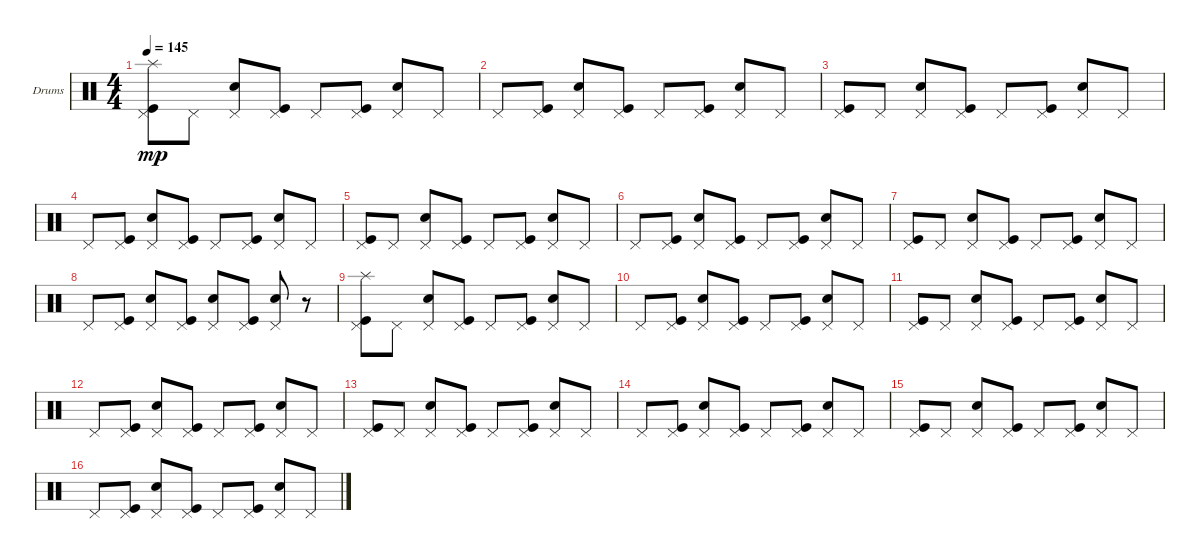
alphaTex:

\defaultSystemsLayout 4
\bracketExtendMode groupsimilarinstruments
\firstSystemTrackNameOrientation horizontal
\otherSystemsTrackNameOrientation horizontal
\track ("Drumkit" "Drums") {instrument percussion}
\staff {score}
\articulation defaults
\ts (4 4)
\tempo 145
\clef neutral
\ks c
("Pedal Hi-Hat (hit)" "Kick (hit)" "Splash (hit)").8{dy mp} "Pedal Hi-Hat (hit)".8 ("Pedal Hi-Hat (hit)" "Snare (hit) 2").8 ("Pedal Hi-Hat (hit)" "Kick (hit)").8 "Pedal Hi-Hat (hit)".8 ("Pedal Hi-Hat (hit)" "Kick (hit)").8 ("Pedal Hi-Hat (hit)" "Snare (hit) 2").8 "Pedal Hi-Hat (hit)".8 |
"Pedal Hi-Hat (hit)".8 ("Pedal Hi-Hat (hit)" "Kick (hit)").8 ("Pedal Hi-Hat (hit)" "Snare (hit) 2").8 ("Pedal Hi-Hat (hit)" "Kick (hit)").8 "Pedal Hi-Hat (hit)".8 ("Pedal Hi-Hat (hit)" "Kick (hit)").8 ("Pedal Hi-Hat (hit)" "Snare (hit) 2").8 "Pedal Hi-Hat (hit)".8 |
("Pedal Hi-Hat (hit)" "Kick (hit)").8 "Pedal Hi-Hat (hit)".8 ("Pedal Hi-Hat (hit)" "Snare (hit) 2").8 ("Pedal Hi-Hat (hit)" "Kick (hit)").8 "Pedal Hi-Hat (hit)".8 ("Pedal Hi-Hat (hit)" "Kick (hit)").8 ("Pedal Hi-Hat (hit)" "Snare (hit) 2").8 "Pedal Hi-Hat (hit)".8 |
"Pedal Hi-Hat (hit)".8 ("Pedal Hi-Hat (hit)" "Kick (hit)").8 ("Pedal Hi-Hat (hit)" "Snare (hit) 2").8 ("Pedal Hi-Hat (hit)" "Kick (hit)").8 "Pedal Hi-Hat (hit)".8 ("Pedal Hi-Hat (hit)" "Kick (hit)").8 ("Pedal Hi-Hat (hit)" "Snare (hit) 2").8 "Pedal Hi-Hat (hit)".8 |
("Pedal Hi-Hat (hit)" "Kick (hit)").8 "Pedal Hi-Hat (hit)".8 ("Pedal Hi-Hat (hit)" "Snare (hit) 2").8 ("Pedal Hi-Hat (hit)" "Kick (hit)").8 "Pedal Hi-Hat (hit)".8 ("Pedal Hi-Hat (hit)" "Kick (hit)").8 ("Pedal Hi-Hat (hit)" "Snare (hit) 2").8 "Pedal Hi-Hat (hit)".8 |
"Pedal Hi-Hat (hit)".8 ("Pedal Hi-Hat (hit)" "Kick (hit)").8 ("Pedal Hi-Hat (hit)" "Snare (hit) 2").8 ("Pedal Hi-Hat (hit)" "Kick (hit)").8 "Pedal Hi-Hat (hit)".8 ("Pedal Hi-Hat (hit)" "Kick (hit)").8 ("Pedal Hi-Hat (hit)" "Snare (hit) 2").8 "Pedal Hi-Hat (hit)".8 |
("Pedal Hi-Hat (hit)" "Kick (hit)").8 "Pedal Hi-Hat (hit)".8 ("Pedal Hi-Hat (hit)" "Snare (hit) 2").8 ("Pedal Hi-Hat (hit)" "Kick (hit)").8 "Pedal Hi-Hat (hit)".8 ("Pedal Hi-Hat (hit)" "Kick (hit)").8 ("Pedal Hi-Hat (hit)" "Snare (hit) 2").8 "Pedal Hi-Hat (hit)".8 |
"Pedal Hi-Hat (hit)".8 ("Pedal Hi-Hat (hit)" "Kick (hit)").8 ("Pedal Hi-Hat (hit)" "Snare (hit) 2").8 ("Pedal Hi-Hat (hit)" "Kick (hit)").8 ("Pedal Hi-Hat (hit)" "Snare (hit) 2").8 ("Pedal Hi-Hat (hit)" "Kick (hit)").8 ("Pedal Hi-Hat (hit)" "Snare (hit) 2").8 r.8 |
("Pedal Hi-Hat (hit)" "Kick (hit)" "Splash (hit)").8 "Pedal Hi-Hat (hit)".8 ("Pedal Hi-Hat (hit)" "Snare (hit) 2").8 ("Pedal Hi-Hat (hit)" "Kick (hit)").8 "Pedal Hi-Hat (hit)".8 ("Pedal Hi-Hat (hit)" "Kick (hit)").8 ("Pedal Hi-Hat (hit)" "Snare (hit) 2").8 "Pedal Hi-Hat (hit)".8 |
"Pedal Hi-Hat (hit)".8 ("Pedal Hi-Hat (hit)" "Kick (hit)").8 ("Pedal Hi-Hat (hit)" "Snare (hit) 2").8 ("Pedal Hi-Hat (hit)" "Kick (hit)").8 "Pedal Hi-Hat (hit)".8 ("Pedal Hi-Hat (hit)" "Kick (hit)").8 ("Pedal Hi-Hat (hit)" "Snare (hit) 2").8 "Pedal Hi-Hat (hit)".8 |
("Pedal Hi-Hat (hit)" "Kick (hit)").8 "Pedal Hi-Hat (hit)".8 ("Pedal Hi-Hat (hit)" "Snare (hit) 2").8 ("Pedal Hi-Hat (hit)" "Kick (hit)").8 "Pedal Hi-Hat (hit)".8 ("Pedal Hi-Hat (hit)" "Kick (hit)").8 ("Pedal Hi-Hat (hit)" "Snare (hit) 2").8 "Pedal Hi-Hat (hit)".8 |
"Pedal Hi-Hat (hit)".8 ("Pedal Hi-Hat (hit)" "Kick (hit)").8 ("Pedal Hi-Hat (hit)" "Snare (hit) 2").8 ("Pedal Hi-Hat (hit)" "Kick (hit)").8 "Pedal Hi-Hat (hit)".8 ("Pedal Hi-Hat (hit)" "Kick (hit)").8 ("Pedal Hi-Hat (hit)" "Snare (hit) 2").8 "Pedal Hi-Hat (hit)".8 |
("Pedal Hi-Hat (hit)" "Kick (hit)").8 "Pedal Hi-Hat (hit)".8 ("Pedal Hi-Hat (hit)" "Snare (hit) 2").8 ("Pedal Hi-Hat (hit)" "Kick (hit)").8 "Pedal Hi-Hat (hit)".8 ("Pedal Hi-Hat (hit)" "Kick (hit)").8 ("Pedal Hi-Hat (hit)" "Snare (hit) 2").8 "Pedal Hi-Hat (hit)".8 |
"Pedal Hi-Hat (hit)".8 ("Pedal Hi-Hat (hit)" "Kick (hit)").8 ("Pedal Hi-Hat (hit)" "Snare (hit) 2").8 ("Pedal Hi-Hat (hit)" "Kick (hit)").8 "Pedal Hi-Hat (hit)".8 ("Pedal Hi-Hat (hit)" "Kick (hit)").8 ("Pedal Hi-Hat (hit)" "Snare (hit) 2").8 "Pedal Hi-Hat (hit)".8 |
("Pedal Hi-Hat (hit)" "Kick (hit)").8 "Pedal Hi-Hat (hit)".8 ("Pedal Hi-Hat (hit)" "Snare (hit) 2").8 ("Pedal Hi-Hat (hit)" "Kick (hit)").8 "Pedal Hi-Hat (hit)".8 ("Pedal Hi-Hat (hit)" "Kick (hit)").8 ("Pedal Hi-Hat (hit)" "Snare (hit) 2").8 "Pedal Hi-Hat (hit)".8 |
"Pedal Hi-Hat (hit)".8 ("Pedal Hi-Hat (hit)" "Kick (hit)").8 ("Pedal Hi-Hat (hit)" "Snare (hit) 2").8 ("Pedal Hi-Hat (hit)" "Kick (hit)").8 "Pedal Hi-Hat (hit)".8 ("Pedal Hi-Hat (hit)" "Kick (hit)").8 ("Pedal Hi-Hat (hit)" "Snare (hit) 2").8 "Pedal Hi-Hat (hit)".8
